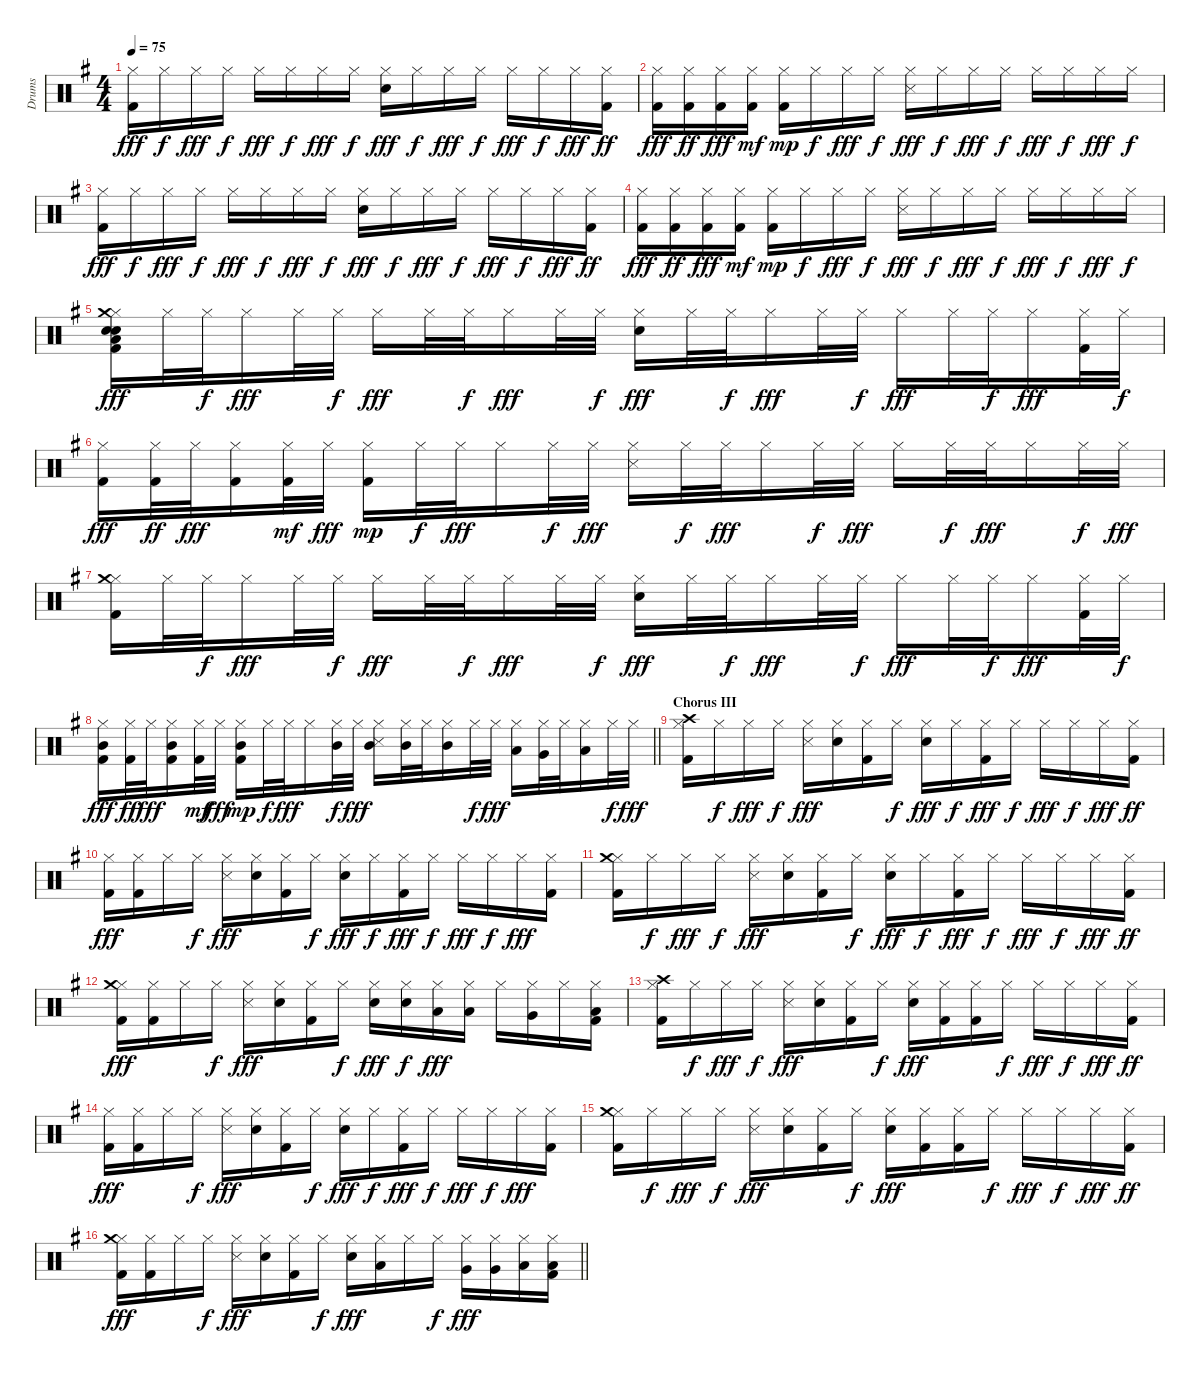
\track ("Drums" "Drums") {instrument percussion}
\staff {score}
\articulation defaults
\ts (4 4)
\tempo 75
\clef neutral
\ks g
("Hi-Hat (closed)" "Kick (hit) 2").16{dy fff} "Hi-Hat (closed)".16{dy f} "Hi-Hat (closed)".16{dy fff} "Hi-Hat (closed)".16{dy f} "Hi-Hat (closed)".16{dy fff} "Hi-Hat (closed)".16{dy f} "Hi-Hat (closed)".16{dy fff} "Hi-Hat (closed)".16{dy f} ("Hi-Hat (closed)" "Snare (hit) 2").16{dy fff} "Hi-Hat (closed)".16{dy f} "Hi-Hat (closed)".16{dy fff} "Hi-Hat (closed)".16{dy f} "Hi-Hat (closed)".16{dy fff} "Hi-Hat (closed)".16{dy f} "Hi-Hat (closed)".16{dy fff} ("Hi-Hat (closed)" "Kick (hit) 2").16{dy ff} |
("Hi-Hat (closed)" "Kick (hit) 2").16{dy fff} ("Hi-Hat (closed)" "Kick (hit) 2").16{dy ff} ("Hi-Hat (closed)" "Kick (hit) 2").16{dy fff} ("Hi-Hat (closed)" "Kick (hit) 2").16{dy mf} ("Hi-Hat (closed)" "Kick (hit) 2").16{dy mp} "Hi-Hat (closed)".16{dy f} "Hi-Hat (closed)".16{dy fff} "Hi-Hat (closed)".16{dy f} ("Hi-Hat (closed)" "Snare (side stick) 3").16{dy fff} "Hi-Hat (closed)".16{dy f} "Hi-Hat (closed)".16{dy fff} "Hi-Hat (closed)".16{dy f} "Hi-Hat (closed)".16{dy fff} "Hi-Hat (closed)".16{dy f} "Hi-Hat (closed)".16{dy fff} "Hi-Hat (closed)".16{dy f} |
("Hi-Hat (closed)" "Kick (hit) 2").16{dy fff} "Hi-Hat (closed)".16{dy f} "Hi-Hat (closed)".16{dy fff} "Hi-Hat (closed)".16{dy f} "Hi-Hat (closed)".16{dy fff} "Hi-Hat (closed)".16{dy f} "Hi-Hat (closed)".16{dy fff} "Hi-Hat (closed)".16{dy f} ("Hi-Hat (closed)" "Snare (hit) 2").16{dy fff} "Hi-Hat (closed)".16{dy f} "Hi-Hat (closed)".16{dy fff} "Hi-Hat (closed)".16{dy f} "Hi-Hat (closed)".16{dy fff} "Hi-Hat (closed)".16{dy f} "Hi-Hat (closed)".16{dy fff} ("Hi-Hat (closed)" "Kick (hit) 2").16{dy ff} |
("Hi-Hat (closed)" "Kick (hit) 2").16{dy fff} ("Hi-Hat (closed)" "Kick (hit) 2").16{dy ff} ("Hi-Hat (closed)" "Kick (hit) 2").16{dy fff} ("Hi-Hat (closed)" "Kick (hit) 2").16{dy mf} ("Hi-Hat (closed)" "Kick (hit) 2").16{dy mp} "Hi-Hat (closed)".16{dy f} "Hi-Hat (closed)".16{dy fff} "Hi-Hat (closed)".16{dy f} ("Hi-Hat (closed)" "Snare (side stick) 3").16{dy fff} "Hi-Hat (closed)".16{dy f} "Hi-Hat (closed)".16{dy fff} "Hi-Hat (closed)".16{dy f} "Hi-Hat (closed)".16{dy fff} "Hi-Hat (closed)".16{dy f} "Hi-Hat (closed)".16{dy fff} "Hi-Hat (closed)".16{dy f} |
("Hi-Hat (closed)" "Crash medium (hit)" "Low Tom (hit)" "Electric Snare (hit)" "Snare (hit) 2" "Kick (hit) 2").16{dy fff} "Hi-Hat (closed)".32 "Hi-Hat (closed)".32{dy f} "Hi-Hat (closed)".16{dy fff} "Hi-Hat (closed)".32 "Hi-Hat (closed)".32{dy f} "Hi-Hat (closed)".16{dy fff} "Hi-Hat (closed)".32 "Hi-Hat (closed)".32{dy f} "Hi-Hat (closed)".16{dy fff} "Hi-Hat (closed)".32 "Hi-Hat (closed)".32{dy f} ("Hi-Hat (closed)" "Snare (hit) 2").16{dy fff} "Hi-Hat (closed)".32 "Hi-Hat (closed)".32{dy f} "Hi-Hat (closed)".16{dy fff} "Hi-Hat (closed)".32 "Hi-Hat (closed)".32{dy f} "Hi-Hat (closed)".16{dy fff} "Hi-Hat (closed)".32 "Hi-Hat (closed)".32{dy f} "Hi-Hat (closed)".16{dy fff} ("Hi-Hat (closed)" "Kick (hit) 2").32 "Hi-Hat (closed)".32{dy f} |
("Hi-Hat (closed)" "Kick (hit) 2").16{dy fff} ("Hi-Hat (closed)" "Kick (hit) 2").32{dy ff} "Hi-Hat (closed)".32{dy fff} ("Hi-Hat (closed)" "Kick (hit) 2").16 ("Hi-Hat (closed)" "Kick (hit) 2").32{dy mf} "Hi-Hat (closed)".32{dy fff} ("Hi-Hat (closed)" "Kick (hit) 2").16{dy mp} "Hi-Hat (closed)".32{dy f} "Hi-Hat (closed)".32{dy fff} "Hi-Hat (closed)".16 "Hi-Hat (closed)".32{dy f} "Hi-Hat (closed)".32{dy fff} ("Hi-Hat (closed)" "Snare (side stick) 3").16 "Hi-Hat (closed)".32{dy f} "Hi-Hat (closed)".32{dy fff} "Hi-Hat (closed)".16 "Hi-Hat (closed)".32{dy f} "Hi-Hat (closed)".32{dy fff} "Hi-Hat (closed)".16 "Hi-Hat (closed)".32{dy f} "Hi-Hat (closed)".32{dy fff} "Hi-Hat (closed)".16 "Hi-Hat (closed)".32{dy f} "Hi-Hat (closed)".32{dy fff} |
("Hi-Hat (closed)" "Crash medium (hit)" "Kick (hit) 2").16 "Hi-Hat (closed)".32 "Hi-Hat (closed)".32{dy f} "Hi-Hat (closed)".16{dy fff} "Hi-Hat (closed)".32 "Hi-Hat (closed)".32{dy f} "Hi-Hat (closed)".16{dy fff} "Hi-Hat (closed)".32 "Hi-Hat (closed)".32{dy f} "Hi-Hat (closed)".16{dy fff} "Hi-Hat (closed)".32 "Hi-Hat (closed)".32{dy f} ("Hi-Hat (closed)" "Snare (hit) 2").16{dy fff} "Hi-Hat (closed)".32 "Hi-Hat (closed)".32{dy f} "Hi-Hat (closed)".16{dy fff} "Hi-Hat (closed)".32 "Hi-Hat (closed)".32{dy f} "Hi-Hat (closed)".16{dy fff} "Hi-Hat (closed)".32 "Hi-Hat (closed)".32{dy f} "Hi-Hat (closed)".16{dy fff} ("Hi-Hat (closed)" "Kick (hit) 2").32 "Hi-Hat (closed)".32{dy f} |
\barLineRight lightlight
("Hi-Hat (closed)" "Mid Tom (hit)" "Kick (hit) 2").16{dy fff} ("Hi-Hat (closed)" "Kick (hit) 2").32{dy ff} "Hi-Hat (closed)".32{dy fff} ("Hi-Hat (closed)" "Mid Tom (hit)" "Kick (hit) 2").16 ("Hi-Hat (closed)" "Kick (hit) 2").32{dy mf} "Hi-Hat (closed)".32{dy fff} ("Hi-Hat (closed)" "Mid Tom (hit)" "Kick (hit) 2").16{dy mp} "Hi-Hat (closed)".32{dy f} "Hi-Hat (closed)".32{dy fff} "Hi-Hat (closed)".16 ("Hi-Hat (closed)" "Mid Tom (hit)").32{dy f} "Hi-Hat (closed)".32{dy fff} ("Hi-Hat (closed)" "Mid Tom (hit)" "Snare (side stick) 3").16 ("Hi-Hat (closed)" "Mid Tom (hit)").32 "Hi-Hat (closed)".32 ("Hi-Hat (closed)" "Mid Tom (hit)").16 "Hi-Hat (closed)".32{dy f} "Hi-Hat (closed)".32{dy fff} ("Hi-Hat (closed)" "Low Tom (hit)").16 ("Hi-Hat (closed)" "Very Low Tom (hit)").32 "Hi-Hat (closed)".32 ("Hi-Hat (closed)" "Low Floor Tom (hit)").16 "Hi-Hat (closed)".32{dy f} "Hi-Hat (closed)".32{dy fff} |
\section ("" "Chorus III")
("Hi-Hat (closed)" "Crash high (hit)" "Kick (hit) 2").16 "Hi-Hat (closed)".16{dy f} "Hi-Hat (closed)".16{dy fff} "Hi-Hat (closed)".16{dy f} ("Hi-Hat (closed)" "Snare (side stick) 3").16{dy fff} ("Hi-Hat (closed)" "Snare (hit) 2").16 ("Hi-Hat (closed)" "Kick (hit) 2").16 "Hi-Hat (closed)".16{dy f} ("Hi-Hat (closed)" "Snare (hit) 2").16{dy fff} "Hi-Hat (closed)".16{dy f} ("Hi-Hat (closed)" "Kick (hit) 2").16{dy fff} "Hi-Hat (closed)".16{dy f} "Hi-Hat (closed)".16{dy fff} "Hi-Hat (closed)".16{dy f} "Hi-Hat (closed)".16{dy fff} ("Hi-Hat (closed)" "Kick (hit) 2").16{dy ff} |
("Hi-Hat (closed)" "Kick (hit) 2").16{dy fff} ("Hi-Hat (closed)" "Kick (hit) 2").16 "Hi-Hat (closed)".16 "Hi-Hat (closed)".16{dy f} ("Hi-Hat (closed)" "Snare (side stick) 3").16{dy fff} ("Hi-Hat (closed)" "Snare (hit) 2").16 ("Hi-Hat (closed)" "Kick (hit) 2").16 "Hi-Hat (closed)".16{dy f} ("Hi-Hat (closed)" "Snare (hit) 2").16{dy fff} "Hi-Hat (closed)".16{dy f} ("Hi-Hat (closed)" "Kick (hit) 2").16{dy fff} "Hi-Hat (closed)".16{dy f} "Hi-Hat (closed)".16{dy fff} "Hi-Hat (closed)".16{dy f} "Hi-Hat (closed)".16{dy fff} ("Hi-Hat (closed)" "Kick (hit) 2").16 |
("Hi-Hat (closed)" "Crash medium (hit)" "Kick (hit) 2").16 "Hi-Hat (closed)".16{dy f} "Hi-Hat (closed)".16{dy fff} "Hi-Hat (closed)".16{dy f} ("Hi-Hat (closed)" "Snare (side stick) 3").16{dy fff} ("Hi-Hat (closed)" "Snare (hit) 2").16 ("Hi-Hat (closed)" "Kick (hit) 2").16 "Hi-Hat (closed)".16{dy f} ("Hi-Hat (closed)" "Snare (hit) 2").16{dy fff} "Hi-Hat (closed)".16{dy f} ("Hi-Hat (closed)" "Kick (hit) 2").16{dy fff} "Hi-Hat (closed)".16{dy f} "Hi-Hat (closed)".16{dy fff} "Hi-Hat (closed)".16{dy f} "Hi-Hat (closed)".16{dy fff} ("Hi-Hat (closed)" "Kick (hit) 2").16{dy ff} |
("Hi-Hat (closed)" "Crash medium (hit)" "Kick (hit) 2").16{dy fff} ("Hi-Hat (closed)" "Kick (hit) 2").16 "Hi-Hat (closed)".16 "Hi-Hat (closed)".16{dy f} ("Hi-Hat (closed)" "Snare (side stick) 3").16{dy fff} ("Hi-Hat (closed)" "Snare (hit) 2").16 ("Hi-Hat (closed)" "Kick (hit) 2").16 "Hi-Hat (closed)".16{dy f} ("Hi-Hat (closed)" "Snare (hit) 2").16{dy fff} ("Hi-Hat (closed)" "Snare (hit) 2").16{dy f} ("Hi-Hat (closed)" "Low Tom (hit)").16{dy fff} ("Hi-Hat (closed)" "Low Tom (hit)").16 "Hi-Hat (closed)".16 ("Hi-Hat (closed)" "Very Low Tom (hit)").16 "Hi-Hat (closed)".16 ("Hi-Hat (closed)" "Low Floor Tom (hit)" "Kick (hit) 2").16 |
("Hi-Hat (closed)" "Crash high (hit)" "Kick (hit) 2").16 "Hi-Hat (closed)".16{dy f} "Hi-Hat (closed)".16{dy fff} "Hi-Hat (closed)".16{dy f} ("Hi-Hat (closed)" "Snare (side stick) 3").16{dy fff} ("Hi-Hat (closed)" "Snare (hit) 2").16 ("Hi-Hat (closed)" "Kick (hit) 2").16 "Hi-Hat (closed)".16{dy f} ("Hi-Hat (closed)" "Snare (hit) 2").16{dy fff} ("Hi-Hat (closed)" "Kick (hit) 2").16 ("Hi-Hat (closed)" "Kick (hit) 2").16 "Hi-Hat (closed)".16{dy f} "Hi-Hat (closed)".16{dy fff} "Hi-Hat (closed)".16{dy f} "Hi-Hat (closed)".16{dy fff} ("Hi-Hat (closed)" "Kick (hit) 2").16{dy ff} |
("Hi-Hat (closed)" "Kick (hit) 2").16{dy fff} ("Hi-Hat (closed)" "Kick (hit) 2").16 "Hi-Hat (closed)".16 "Hi-Hat (closed)".16{dy f} ("Hi-Hat (closed)" "Snare (side stick) 3").16{dy fff} ("Hi-Hat (closed)" "Snare (hit) 2").16 ("Hi-Hat (closed)" "Kick (hit) 2").16 "Hi-Hat (closed)".16{dy f} ("Hi-Hat (closed)" "Snare (hit) 2").16{dy fff} "Hi-Hat (closed)".16{dy f} ("Hi-Hat (closed)" "Kick (hit) 2").16{dy fff} "Hi-Hat (closed)".16{dy f} "Hi-Hat (closed)".16{dy fff} "Hi-Hat (closed)".16{dy f} "Hi-Hat (closed)".16{dy fff} ("Hi-Hat (closed)" "Kick (hit) 2").16 |
("Hi-Hat (closed)" "Crash medium (hit)" "Kick (hit) 2").16 "Hi-Hat (closed)".16{dy f} "Hi-Hat (closed)".16{dy fff} "Hi-Hat (closed)".16{dy f} ("Hi-Hat (closed)" "Snare (side stick) 3").16{dy fff} ("Hi-Hat (closed)" "Snare (hit) 2").16 ("Hi-Hat (closed)" "Kick (hit) 2").16 "Hi-Hat (closed)".16{dy f} ("Hi-Hat (closed)" "Snare (hit) 2").16{dy fff} ("Hi-Hat (closed)" "Kick (hit) 2").16 ("Hi-Hat (closed)" "Kick (hit) 2").16 "Hi-Hat (closed)".16{dy f} "Hi-Hat (closed)".16{dy fff} "Hi-Hat (closed)".16{dy f} "Hi-Hat (closed)".16{dy fff} ("Hi-Hat (closed)" "Kick (hit) 2").16{dy ff} |
\barLineRight lightlight
("Hi-Hat (closed)" "Crash medium (hit)" "Kick (hit) 2").16{dy fff} ("Hi-Hat (closed)" "Kick (hit) 2").16 "Hi-Hat (closed)".16 "Hi-Hat (closed)".16{dy f} ("Hi-Hat (closed)" "Snare (side stick) 3").16{dy fff} ("Hi-Hat (closed)" "Snare (hit) 2").16 ("Hi-Hat (closed)" "Kick (hit) 2").16 "Hi-Hat (closed)".16{dy f} ("Hi-Hat (closed)" "Snare (hit) 2").16{dy fff} ("Hi-Hat (closed)" "Low Tom (hit)").16 "Hi-Hat (closed)".16 "Hi-Hat (closed)".16{dy f} ("Hi-Hat (closed)" "Very Low Tom (hit)").16{dy fff} ("Hi-Hat (closed)" "Very Low Tom (hit)").16 ("Hi-Hat (closed)" "Low Floor Tom (hit)").16 ("Hi-Hat (closed)" "Low Floor Tom (hit)" "Kick (hit) 2").16
